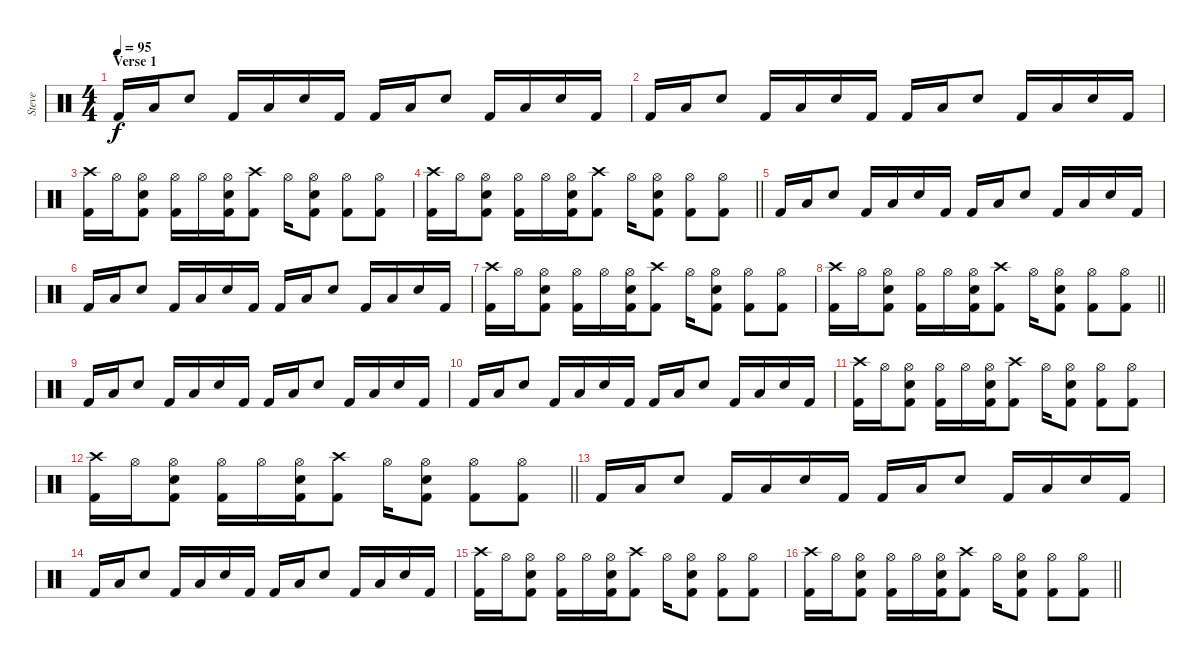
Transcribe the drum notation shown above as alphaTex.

\track ("Steve" "Steve") {instrument percussion}
\staff {score}
\articulation defaults
\ts (4 4)
\section ("" "Verse 1")
\tempo 95
\clef neutral
\ks c "Kick (hit) 2".16{dy f} "Low Floor Tom (hit)".16 "Snare (hit) 2".8 "Kick (hit) 2".16 "Low Floor Tom (hit)".16 "Snare (hit) 2".16 "Kick (hit) 2".16 "Kick (hit) 2".16 "Low Floor Tom (hit)".16 "Snare (hit) 2".8 "Kick (hit) 2".16 "Low Floor Tom (hit)".16 "Snare (hit) 2".16 "Kick (hit) 2".16
|
"Kick (hit) 2".16 "Low Floor Tom (hit)".16 "Snare (hit) 2".8 "Kick (hit) 2".16 "Low Floor Tom (hit)".16 "Snare (hit) 2".16 "Kick (hit) 2".16 "Kick (hit) 2".16 "Low Floor Tom (hit)".16 "Snare (hit) 2".8 "Kick (hit) 2".16 "Low Floor Tom (hit)".16 "Snare (hit) 2".16 "Kick (hit) 2".16 |
("Kick (hit) 2" "Crash high (hit)").16 "Hi-Hat (open)".16 ("Kick (hit) 2" "Snare (hit) 2" "Hi-Hat (open)").8 ("Kick (hit) 2" "Hi-Hat (open)").16 "Hi-Hat (open)".16 ("Kick (hit) 2" "Snare (hit) 2" "Hi-Hat (open)").16 ("Kick (hit) 2" "Crash high (hit)").8 "Hi-Hat (open)".16 ("Kick (hit) 2" "Snare (hit) 2" "Hi-Hat (open)").8 ("Kick (hit) 2" "Hi-Hat (open)").8 ("Kick (hit) 2" "Hi-Hat (open)").8 |
\barLineRight lightlight
("Kick (hit) 2" "Crash high (hit)").16 "Hi-Hat (open)".16 ("Kick (hit) 2" "Snare (hit) 2" "Hi-Hat (open)").8 ("Kick (hit) 2" "Hi-Hat (open)").16 "Hi-Hat (open)".16 ("Kick (hit) 2" "Snare (hit) 2" "Hi-Hat (open)").16 ("Kick (hit) 2" "Crash high (hit)").8 "Hi-Hat (open)".16 ("Kick (hit) 2" "Snare (hit) 2" "Hi-Hat (open)").8 ("Kick (hit) 2" "Hi-Hat (open)").8 ("Kick (hit) 2" "Hi-Hat (open)").8 |
"Kick (hit) 2".16 "Low Floor Tom (hit)".16 "Snare (hit) 2".8 "Kick (hit) 2".16 "Low Floor Tom (hit)".16 "Snare (hit) 2".16 "Kick (hit) 2".16 "Kick (hit) 2".16 "Low Floor Tom (hit)".16 "Snare (hit) 2".8 "Kick (hit) 2".16 "Low Floor Tom (hit)".16 "Snare (hit) 2".16 "Kick (hit) 2".16 |
"Kick (hit) 2".16 "Low Floor Tom (hit)".16 "Snare (hit) 2".8 "Kick (hit) 2".16 "Low Floor Tom (hit)".16 "Snare (hit) 2".16 "Kick (hit) 2".16 "Kick (hit) 2".16 "Low Floor Tom (hit)".16 "Snare (hit) 2".8 "Kick (hit) 2".16 "Low Floor Tom (hit)".16 "Snare (hit) 2".16 "Kick (hit) 2".16 |
("Kick (hit) 2" "Crash high (hit)").16 "Hi-Hat (open)".16 ("Kick (hit) 2" "Snare (hit) 2" "Hi-Hat (open)").8 ("Kick (hit) 2" "Hi-Hat (open)").16 "Hi-Hat (open)".16 ("Kick (hit) 2" "Snare (hit) 2" "Hi-Hat (open)").16 ("Kick (hit) 2" "Crash high (hit)").8 "Hi-Hat (open)".16 ("Kick (hit) 2" "Snare (hit) 2" "Hi-Hat (open)").8 ("Kick (hit) 2" "Hi-Hat (open)").8 ("Kick (hit) 2" "Hi-Hat (open)").8 |
\barLineRight lightlight
("Kick (hit) 2" "Crash high (hit)").16 "Hi-Hat (open)".16 ("Kick (hit) 2" "Snare (hit) 2" "Hi-Hat (open)").8 ("Kick (hit) 2" "Hi-Hat (open)").16 "Hi-Hat (open)".16 ("Kick (hit) 2" "Snare (hit) 2" "Hi-Hat (open)").16 ("Kick (hit) 2" "Crash high (hit)").8 "Hi-Hat (open)".16 ("Kick (hit) 2" "Snare (hit) 2" "Hi-Hat (open)").8 ("Kick (hit) 2" "Hi-Hat (open)").8 ("Kick (hit) 2" "Hi-Hat (open)").8 |
"Kick (hit) 2".16 "Low Floor Tom (hit)".16 "Snare (hit) 2".8 "Kick (hit) 2".16 "Low Floor Tom (hit)".16 "Snare (hit) 2".16 "Kick (hit) 2".16 "Kick (hit) 2".16 "Low Floor Tom (hit)".16 "Snare (hit) 2".8 "Kick (hit) 2".16 "Low Floor Tom (hit)".16 "Snare (hit) 2".16 "Kick (hit) 2".16 |
"Kick (hit) 2".16 "Low Floor Tom (hit)".16 "Snare (hit) 2".8 "Kick (hit) 2".16 "Low Floor Tom (hit)".16 "Snare (hit) 2".16 "Kick (hit) 2".16 "Kick (hit) 2".16 "Low Floor Tom (hit)".16 "Snare (hit) 2".8 "Kick (hit) 2".16 "Low Floor Tom (hit)".16 "Snare (hit) 2".16 "Kick (hit) 2".16 |
("Kick (hit) 2" "Crash high (hit)").16 "Hi-Hat (open)".16 ("Kick (hit) 2" "Snare (hit) 2" "Hi-Hat (open)").8 ("Kick (hit) 2" "Hi-Hat (open)").16 "Hi-Hat (open)".16 ("Kick (hit) 2" "Snare (hit) 2" "Hi-Hat (open)").16 ("Kick (hit) 2" "Crash high (hit)").8 "Hi-Hat (open)".16 ("Kick (hit) 2" "Snare (hit) 2" "Hi-Hat (open)").8 ("Kick (hit) 2" "Hi-Hat (open)").8 ("Kick (hit) 2" "Hi-Hat (open)").8 |
\barLineRight lightlight
("Kick (hit) 2" "Crash high (hit)").16 "Hi-Hat (open)".16 ("Kick (hit) 2" "Snare (hit) 2" "Hi-Hat (open)").8 ("Kick (hit) 2" "Hi-Hat (open)").16 "Hi-Hat (open)".16 ("Kick (hit) 2" "Snare (hit) 2" "Hi-Hat (open)").16 ("Kick (hit) 2" "Crash high (hit)").8 "Hi-Hat (open)".16 ("Kick (hit) 2" "Snare (hit) 2" "Hi-Hat (open)").8 ("Kick (hit) 2" "Hi-Hat (open)").8 ("Kick (hit) 2" "Hi-Hat (open)").8 |
"Kick (hit) 2".16 "Low Floor Tom (hit)".16 "Snare (hit) 2".8 "Kick (hit) 2".16 "Low Floor Tom (hit)".16 "Snare (hit) 2".16 "Kick (hit) 2".16 "Kick (hit) 2".16 "Low Floor Tom (hit)".16 "Snare (hit) 2".8 "Kick (hit) 2".16 "Low Floor Tom (hit)".16 "Snare (hit) 2".16 "Kick (hit) 2".16 |
"Kick (hit) 2".16 "Low Floor Tom (hit)".16 "Snare (hit) 2".8 "Kick (hit) 2".16 "Low Floor Tom (hit)".16 "Snare (hit) 2".16 "Kick (hit) 2".16 "Kick (hit) 2".16 "Low Floor Tom (hit)".16 "Snare (hit) 2".8 "Kick (hit) 2".16 "Low Floor Tom (hit)".16 "Snare (hit) 2".16 "Kick (hit) 2".16 |
("Kick (hit) 2" "Crash high (hit)").16 "Hi-Hat (open)".16 ("Kick (hit) 2" "Snare (hit) 2" "Hi-Hat (open)").8 ("Kick (hit) 2" "Hi-Hat (open)").16 "Hi-Hat (open)".16 ("Kick (hit) 2" "Snare (hit) 2" "Hi-Hat (open)").16 ("Kick (hit) 2" "Crash high (hit)").8 "Hi-Hat (open)".16 ("Kick (hit) 2" "Snare (hit) 2" "Hi-Hat (open)").8 ("Kick (hit) 2" "Hi-Hat (open)").8 ("Kick (hit) 2" "Hi-Hat (open)").8 |
\barLineRight lightlight
("Kick (hit) 2" "Crash high (hit)").16 "Hi-Hat (open)".16 ("Kick (hit) 2" "Snare (hit) 2" "Hi-Hat (open)").8 ("Kick (hit) 2" "Hi-Hat (open)").16 "Hi-Hat (open)".16 ("Kick (hit) 2" "Snare (hit) 2" "Hi-Hat (open)").16 ("Kick (hit) 2" "Crash high (hit)").8 "Hi-Hat (open)".16 ("Kick (hit) 2" "Snare (hit) 2" "Hi-Hat (open)").8 ("Kick (hit) 2" "Hi-Hat (open)").8 ("Kick (hit) 2" "Hi-Hat (open)").8
